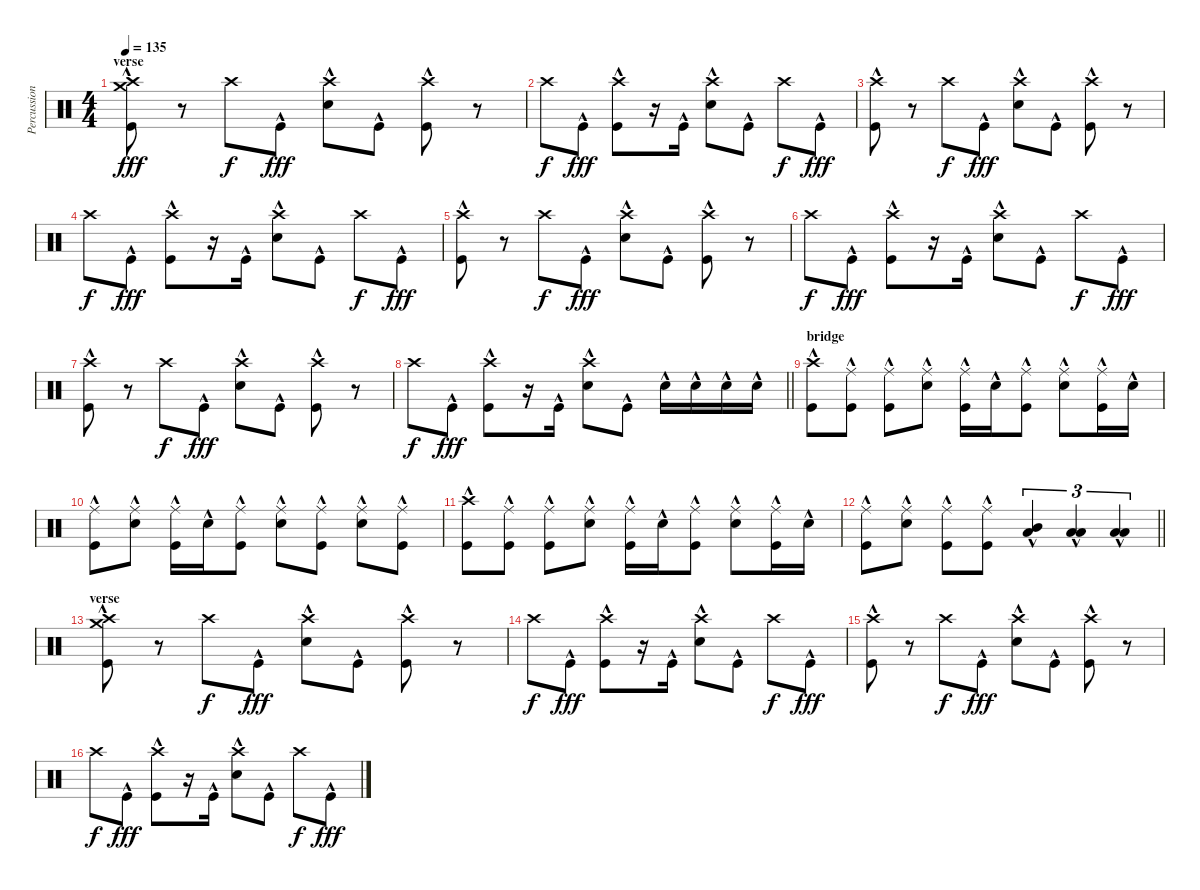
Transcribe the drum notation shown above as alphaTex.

\track ("Percussion" "Percussion") {instrument percussion}
\staff {score}
\articulation defaults
\ts (4 4)
\section ("" "verse")
\tempo 135
\clef neutral
\ks c
("Crash medium (hit)" "Crash high (hit)" "Kick (hit)"{hac}).8{dy fff} r.8 "Crash high (hit)".8{dy f} "Kick (hit)"{hac}.8{dy fff} ("Crash high (hit)" "Snare (hit) 2"{hac}).8 "Kick (hit)"{hac}.8 ("Crash high (hit)" "Kick (hit)"{hac}).8 r.8 |
"Crash high (hit)".8{dy f} "Kick (hit)"{hac}.8{dy fff} ("Crash high (hit)" "Kick (hit)"{hac}).8 r.16 "Kick (hit)"{hac}.16 ("Crash high (hit)" "Snare (hit) 2"{hac}).8 "Kick (hit)"{hac}.8 "Crash high (hit)".8{dy f} "Kick (hit)"{hac}.8{dy fff} |
("Crash high (hit)" "Kick (hit)"{hac}).8 r.8 "Crash high (hit)".8{dy f} "Kick (hit)"{hac}.8{dy fff} ("Crash high (hit)" "Snare (hit) 2"{hac}).8 "Kick (hit)"{hac}.8 ("Crash high (hit)" "Kick (hit)"{hac}).8 r.8 |
"Crash high (hit)".8{dy f} "Kick (hit)"{hac}.8{dy fff} ("Crash high (hit)" "Kick (hit)"{hac}).8 r.16 "Kick (hit)"{hac}.16 ("Crash high (hit)" "Snare (hit) 2"{hac}).8 "Kick (hit)"{hac}.8 "Crash high (hit)".8{dy f} "Kick (hit)"{hac}.8{dy fff} |
("Crash high (hit)" "Kick (hit)"{hac}).8 r.8 "Crash high (hit)".8{dy f} "Kick (hit)"{hac}.8{dy fff} ("Crash high (hit)" "Snare (hit) 2"{hac}).8 "Kick (hit)"{hac}.8 ("Crash high (hit)" "Kick (hit)"{hac}).8 r.8 |
"Crash high (hit)".8{dy f} "Kick (hit)"{hac}.8{dy fff} ("Crash high (hit)" "Kick (hit)"{hac}).8 r.16 "Kick (hit)"{hac}.16 ("Crash high (hit)" "Snare (hit) 2"{hac}).8 "Kick (hit)"{hac}.8 "Crash high (hit)".8{dy f} "Kick (hit)"{hac}.8{dy fff} |
("Crash high (hit)" "Kick (hit)"{hac}).8 r.8 "Crash high (hit)".8{dy f} "Kick (hit)"{hac}.8{dy fff} ("Crash high (hit)" "Snare (hit) 2"{hac}).8 "Kick (hit)"{hac}.8 ("Crash high (hit)" "Kick (hit)"{hac}).8 r.8 |
\barLineRight lightlight "Crash high (hit)".8{dy f} "Kick (hit)"{hac}.8{dy fff}
("Crash high (hit)" "Kick (hit)"{hac}).8 r.16 "Kick (hit)"{hac}.16 ("Crash high (hit)" "Snare (hit) 2"{hac}).8 "Kick (hit)"{hac}.8 "Snare (hit) 2"{hac}.16 "Snare (hit) 2"{hac}.16 "Snare (hit) 2"{hac}.16 "Snare (hit) 2"{hac}.16 |
\section ("" "bridge")
("Crash high (hit)" "Kick (hit)"{hac}).8 ("Ride (middle)" "Kick (hit)"{hac}).8 ("Ride (middle)" "Kick (hit)"{hac}).8 ("Ride (middle)" "Snare (hit) 2"{hac}).8 ("Ride (middle)" "Kick (hit)"{hac}).16 "Snare (hit) 2"{hac}.16 ("Ride (middle)" "Kick (hit)"{hac}).8 ("Ride (middle)" "Snare (hit) 2"{hac}).8 ("Ride (middle)" "Kick (hit)"{hac}).16 "Snare (hit) 2"{hac}.16 |
("Ride (middle)" "Kick (hit)"{hac}).8 ("Ride (middle)" "Snare (hit) 2"{hac}).8 ("Ride (middle)" "Kick (hit)"{hac}).16 "Snare (hit) 2"{hac}.16 ("Ride (middle)" "Kick (hit)"{hac}).8 ("Ride (middle)" "Snare (hit) 2"{hac}).8 ("Ride (middle)" "Kick (hit)"{hac}).8 ("Ride (middle)" "Snare (hit) 2"{hac}).8 ("Ride (middle)" "Kick (hit)"{hac}).8 |
("Crash high (hit)" "Kick (hit)"{hac}).8 ("Ride (middle)" "Kick (hit)"{hac}).8 ("Ride (middle)" "Kick (hit)"{hac}).8 ("Ride (middle)" "Snare (hit) 2"{hac}).8 ("Ride (middle)" "Kick (hit)"{hac}).16 "Snare (hit) 2"{hac}.16 ("Ride (middle)" "Kick (hit)"{hac}).8 ("Ride (middle)" "Snare (hit) 2"{hac}).8 ("Ride (middle)" "Kick (hit)"{hac}).16 "Snare (hit) 2"{hac}.16 |
\barLineRight lightlight
("Ride (middle)" "Kick (hit)"{hac}).8 ("Ride (middle)" "Snare (hit) 2"{hac}).8 ("Ride (middle)" "Kick (hit)"{hac}).8 ("Ride (middle)" "Kick (hit)"{hac}).8 ("Mid Tom (hit)"{hac} "Low Tom (hit)"{hac}).4{tu (3 2)} ("Low Tom (hit)"{hac} "Low Floor Tom (hit)"{hac}).4{tu (3 2)} ("Low Floor Tom (hit)"{hac} "Low Floor Tom (hit)"{hac}).4{tu (3 2)} |
\section ("" "verse")
("Crash medium (hit)" "Crash high (hit)" "Kick (hit)"{hac}).8 r.8 "Crash high (hit)".8{dy f} "Kick (hit)"{hac}.8{dy fff} ("Crash high (hit)" "Snare (hit) 2"{hac}).8 "Kick (hit)"{hac}.8 ("Crash high (hit)" "Kick (hit)"{hac}).8 r.8 |
"Crash high (hit)".8{dy f} "Kick (hit)"{hac}.8{dy fff} ("Crash high (hit)" "Kick (hit)"{hac}).8 r.16 "Kick (hit)"{hac}.16 ("Crash high (hit)" "Snare (hit) 2"{hac}).8 "Kick (hit)"{hac}.8 "Crash high (hit)".8{dy f} "Kick (hit)"{hac}.8{dy fff} |
("Crash high (hit)" "Kick (hit)"{hac}).8 r.8 "Crash high (hit)".8{dy f} "Kick (hit)"{hac}.8{dy fff} ("Crash high (hit)" "Snare (hit) 2"{hac}).8 "Kick (hit)"{hac}.8 ("Crash high (hit)" "Kick (hit)"{hac}).8 r.8 |
"Crash high (hit)".8{dy f} "Kick (hit)"{hac}.8{dy fff} ("Crash high (hit)" "Kick (hit)"{hac}).8 r.16 "Kick (hit)"{hac}.16 ("Crash high (hit)" "Snare (hit) 2"{hac}).8 "Kick (hit)"{hac}.8 "Crash high (hit)".8{dy f} "Kick (hit)"{hac}.8{dy fff}
